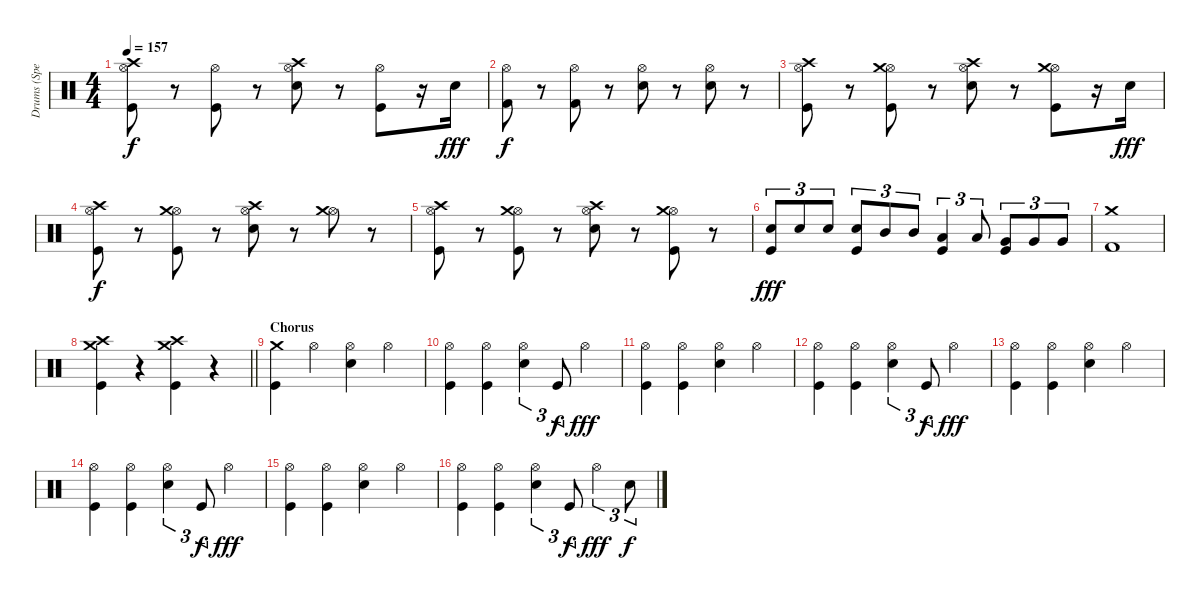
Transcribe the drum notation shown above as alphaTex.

\track ("Drums (Spencer Smith)" "Drums (Spe") {instrument percussion}
\staff {score}
\articulation defaults
\ts (4 4)
\tempo 157
\clef neutral
\ks c
("Hi-Hat (open)" "Crash high (hit)" "Kick (hit)").8{dy f} r.8 ("Hi-Hat (open)" "Kick (hit)").8 r.8 ("Hi-Hat (open)" "Crash high (hit)" "Electric Snare (hit)").8 r.8 ("Hi-Hat (open)" "Kick (hit)").8 r.16 "Electric Snare (hit)".16{dy fff} |
("Hi-Hat (open)" "Kick (hit) 2").8{dy f} r.8 ("Hi-Hat (open)" "Kick (hit) 2").8 r.8 ("Hi-Hat (open)" "Electric Snare (hit)").8 r.8 ("Hi-Hat (open)" "Electric Snare (hit)").8 r.8 |
("Hi-Hat (open)" "Crash high (hit)" "Kick (hit)").8 r.8 ("Hi-Hat (open)" "Crash medium (hit)" "Kick (hit)").8 r.8 ("Hi-Hat (open)" "Crash high (hit)" "Electric Snare (hit)").8 r.8 ("Hi-Hat (open)" "Crash medium (hit)" "Kick (hit)").8 r.16 "Electric Snare (hit)".16{dy fff} |
("Hi-Hat (open)" "Crash high (hit)" "Kick (hit)").8{dy f} r.8 ("Hi-Hat (open)" "Crash medium (hit)" "Kick (hit)").8 r.8 ("Hi-Hat (open)" "Crash high (hit)" "Electric Snare (hit)").8 r.8 ("Hi-Hat (open)" "Crash medium (hit)").8 r.8 |
("Hi-Hat (open)" "Crash high (hit)" "Kick (hit)").8 r.8 ("Hi-Hat (open)" "Crash medium (hit)" "Kick (hit)").8 r.8 ("Hi-Hat (open)" "Crash high (hit)" "Electric Snare (hit)").8 r.8 ("Hi-Hat (open)" "Crash medium (hit)" "Kick (hit)").8 r.8 |
("Electric Snare (hit)" "Kick (hit)").8{tu (3 2) dy fff} "Electric Snare (hit)".8{tu (3 2)} "Electric Snare (hit)".8{tu (3 2)} ("Electric Snare (hit)" "Kick (hit)").8{tu (3 2)} "Mid Tom (hit)".8{tu (3 2)} "Mid Tom (hit)".8{tu (3 2)} ("Low Tom (hit)" "Kick (hit)").4{tu (3 2)} "Low Tom (hit)".8{tu (3 2)} ("Very Low Tom (hit)" "Kick (hit)").8{tu (3 2)} "Very Low Tom (hit)".8{tu (3 2)} "Very Low Tom (hit)".8{tu (3 2)} |
("Crash medium (hit)" "Kick (hit) 2").1 |
\barLineRight lightlight
("Crash high (hit)" "Crash medium (hit)" "Kick (hit)").4 r.4 ("Crash high (hit)" "Crash medium (hit)" "Kick (hit)").4 r.4 |
\section ("" "Chorus")
("Crash medium (hit)" "Kick (hit)").4 "Hi-Hat (open)".4 ("Hi-Hat (open)" "Electric Snare (hit)").4 "Hi-Hat (open)".4 |
("Hi-Hat (open)" "Kick (hit)").4 ("Hi-Hat (open)" "Kick (hit)").4 ("Hi-Hat (open)" "Electric Snare (hit)").4{tu (3 2)} "Kick (hit)".8{tu (3 2) dy f} "Hi-Hat (open)".4{dy fff} |
("Hi-Hat (open)" "Kick (hit)").4 ("Hi-Hat (open)" "Kick (hit)").4 ("Hi-Hat (open)" "Electric Snare (hit)").4 "Hi-Hat (open)".4 |
("Hi-Hat (open)" "Kick (hit)").4 ("Hi-Hat (open)" "Kick (hit)").4 ("Hi-Hat (open)" "Electric Snare (hit)").4{tu (3 2)} "Kick (hit)".8{tu (3 2) dy f} "Hi-Hat (open)".4{dy fff} |
("Hi-Hat (open)" "Kick (hit)").4 ("Hi-Hat (open)" "Kick (hit)").4 ("Hi-Hat (open)" "Electric Snare (hit)").4 "Hi-Hat (open)".4 |
("Hi-Hat (open)" "Kick (hit)").4 ("Hi-Hat (open)" "Kick (hit)").4 ("Hi-Hat (open)" "Electric Snare (hit)").4{tu (3 2)} "Kick (hit)".8{tu (3 2) dy f} "Hi-Hat (open)".4{dy fff} |
("Hi-Hat (open)" "Kick (hit)").4 ("Hi-Hat (open)" "Kick (hit)").4 ("Hi-Hat (open)" "Electric Snare (hit)").4 "Hi-Hat (open)".4 |
("Hi-Hat (open)" "Kick (hit)").4 ("Hi-Hat (open)" "Kick (hit)").4 ("Hi-Hat (open)" "Electric Snare (hit)").4{tu (3 2)} "Kick (hit)".8{tu (3 2) dy f} "Hi-Hat (open)".4{tu (3 2) dy fff} "Electric Snare (hit)".8{tu (3 2) dy f}
